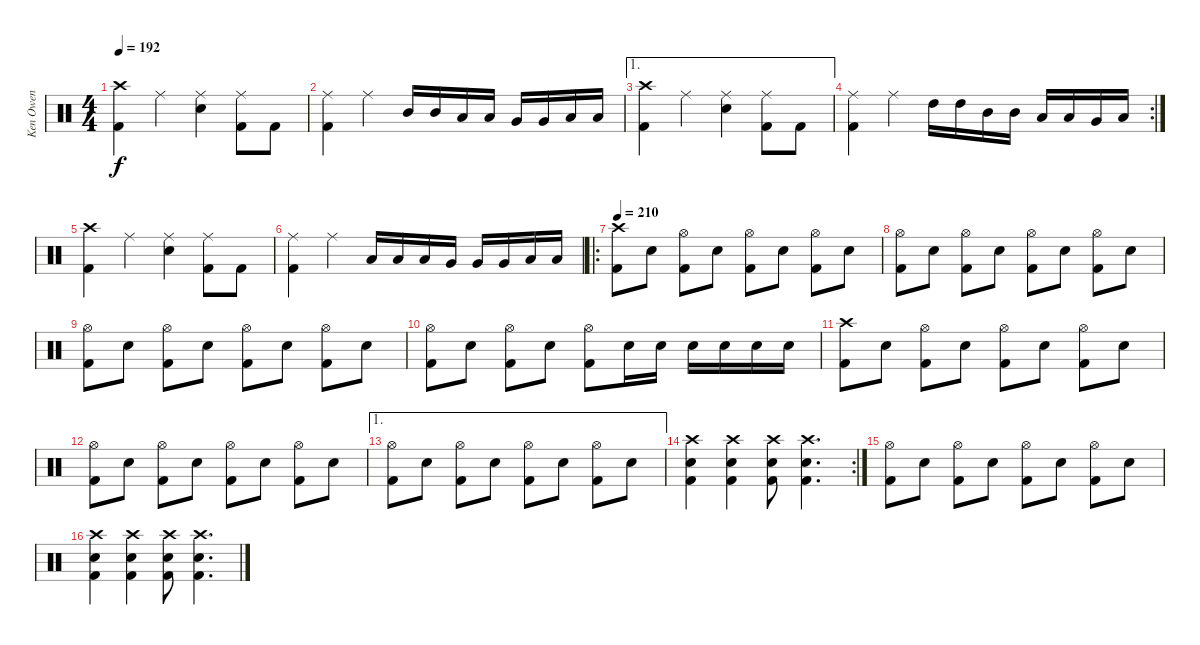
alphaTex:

\track ("Ken Owen" "Ken Owen") {instrument percussion}
\staff {score}
\articulation defaults
\ts (4 4)
\tempo 192
\clef neutral
\ks c
("Crash high (hit)" "Kick (hit) 2").4{dy f} "Ride (middle)".4 ("Ride (middle)" "Snare (hit) 2").4 ("Ride (middle)" "Kick (hit) 2").8 "Kick (hit) 2".8 |
("Ride (middle)" "Kick (hit) 2").4 "Ride (middle)".4 "Mid Tom (hit)".16 "Mid Tom (hit)".16 "Low Tom (hit)".16 "Low Tom (hit)".16 "Very Low Tom (hit)".16 "Very Low Tom (hit)".16 "Low Floor Tom (hit)".16 "Low Floor Tom (hit)".16 |
\ae 1
("Crash high (hit)" "Kick (hit) 2").4 "Ride (middle)".4 ("Ride (middle)" "Snare (hit) 2").4 ("Ride (middle)" "Kick (hit) 2").8 "Kick (hit) 2".8 |
\rc 2
("Ride (middle)" "Kick (hit) 2").4 "Ride (middle)".4 "High Tom (hit)".16 "High Tom (hit)".16 "Mid Tom (hit)".16 "Mid Tom (hit)".16 "Low Tom (hit)".16 "Low Tom (hit)".16 "Very Low Tom (hit)".16 "Low Floor Tom (hit)".16 |
("Crash high (hit)" "Kick (hit) 2").4 "Ride (middle)".4 ("Ride (middle)" "Snare (hit) 2").4 ("Ride (middle)" "Kick (hit) 2").8 "Kick (hit) 2".8 |
("Ride (middle)" "Kick (hit) 2").4 "Ride (middle)".4 "Low Tom (hit)".16 "Low Tom (hit)".16 "Low Tom (hit)".16 "Very Low Tom (hit)".16 "Very Low Tom (hit)".16 "Very Low Tom (hit)".16 "Low Floor Tom (hit)".16 "Low Floor Tom (hit)".16 |
\ro
\tempo 210
("Crash high (hit)" "Kick (hit) 2").8 "Snare (hit) 2".8 ("Hi-Hat (open)" "Kick (hit) 2").8 "Snare (hit) 2".8 ("Hi-Hat (open)" "Kick (hit) 2").8 "Snare (hit) 2".8 ("Hi-Hat (open)" "Kick (hit) 2").8 "Snare (hit) 2".8 |
("Hi-Hat (open)" "Kick (hit) 2").8 "Snare (hit) 2".8 ("Hi-Hat (open)" "Kick (hit) 2").8 "Snare (hit) 2".8 ("Hi-Hat (open)" "Kick (hit) 2").8 "Snare (hit) 2".8 ("Hi-Hat (open)" "Kick (hit) 2").8 "Snare (hit) 2".8 |
("Hi-Hat (open)" "Kick (hit) 2").8 "Snare (hit) 2".8 ("Hi-Hat (open)" "Kick (hit) 2").8 "Snare (hit) 2".8 ("Hi-Hat (open)" "Kick (hit) 2").8 "Snare (hit) 2".8 ("Hi-Hat (open)" "Kick (hit) 2").8 "Snare (hit) 2".8 |
("Hi-Hat (open)" "Kick (hit) 2").8 "Snare (hit) 2".8 ("Hi-Hat (open)" "Kick (hit) 2").8 "Snare (hit) 2".8 ("Hi-Hat (open)" "Kick (hit) 2").8 "Snare (hit) 2".16 "Snare (hit) 2".16 "Snare (hit) 2".16 "Snare (hit) 2".16 "Snare (hit) 2".16 "Snare (hit) 2".16 |
("Crash high (hit)" "Kick (hit) 2").8 "Snare (hit) 2".8 ("Hi-Hat (open)" "Kick (hit) 2").8 "Snare (hit) 2".8 ("Hi-Hat (open)" "Kick (hit) 2").8 "Snare (hit) 2".8 ("Hi-Hat (open)" "Kick (hit) 2").8 "Snare (hit) 2".8 |
("Hi-Hat (open)" "Kick (hit) 2").8 "Snare (hit) 2".8 ("Hi-Hat (open)" "Kick (hit) 2").8 "Snare (hit) 2".8 ("Hi-Hat (open)" "Kick (hit) 2").8 "Snare (hit) 2".8 ("Hi-Hat (open)" "Kick (hit) 2").8 "Snare (hit) 2".8 |
\ae 1
("Hi-Hat (open)" "Kick (hit) 2").8 "Snare (hit) 2".8 ("Hi-Hat (open)" "Kick (hit) 2").8 "Snare (hit) 2".8 ("Hi-Hat (open)" "Kick (hit) 2").8 "Snare (hit) 2".8 ("Hi-Hat (open)" "Kick (hit) 2").8 "Snare (hit) 2".8 |
\rc 2
("Crash high (hit)" "Snare (hit) 2" "Kick (hit) 2").4 ("Crash high (hit)" "Snare (hit) 2" "Kick (hit) 2").4 ("Crash high (hit)" "Snare (hit) 2" "Kick (hit) 2").8 ("Crash high (hit)" "Snare (hit) 2" "Kick (hit) 2").4{d} |
("Hi-Hat (open)" "Kick (hit) 2").8 "Snare (hit) 2".8 ("Hi-Hat (open)" "Kick (hit) 2").8 "Snare (hit) 2".8 ("Hi-Hat (open)" "Kick (hit) 2").8 "Snare (hit) 2".8 ("Hi-Hat (open)" "Kick (hit) 2").8 "Snare (hit) 2".8 |
("Crash high (hit)" "Snare (hit) 2" "Kick (hit) 2").4 ("Crash high (hit)" "Snare (hit) 2" "Kick (hit) 2").4 ("Crash high (hit)" "Snare (hit) 2" "Kick (hit) 2").8 ("Crash high (hit)" "Snare (hit) 2" "Kick (hit) 2").4{d}
